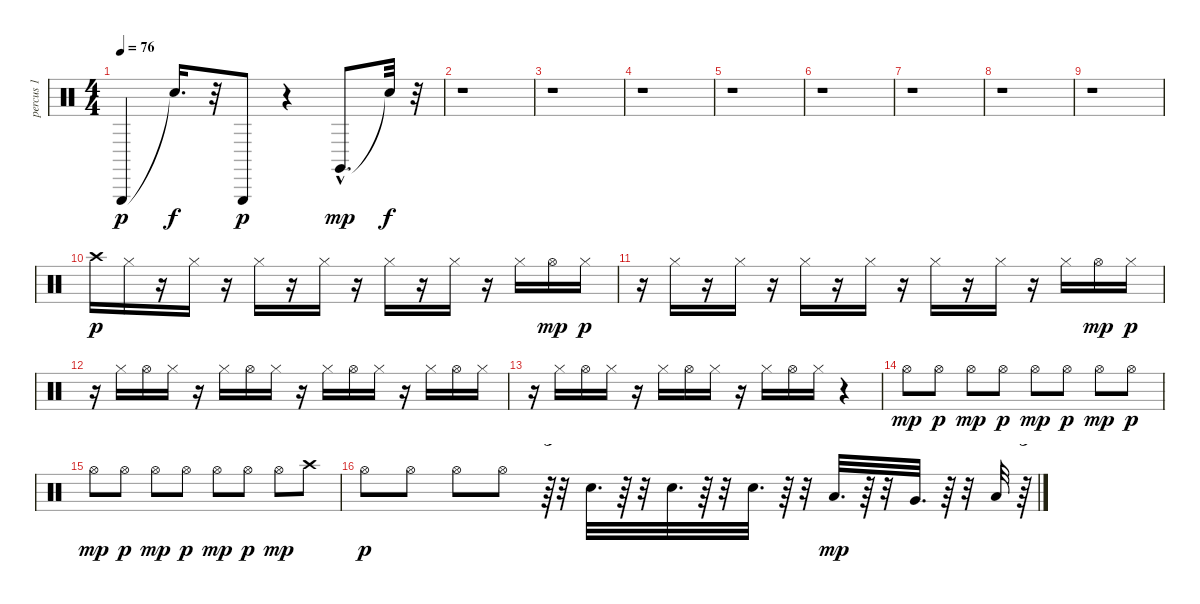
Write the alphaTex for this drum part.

\track ("percus 1" "percus 1") {instrument percussion}
\staff {score}
\articulation defaults
\ts (4 4)
\tempo 76
\clef neutral
\ks c "Triangle (hit)".4{dy p} "Snare (hit)"{t}.16{d dy f}
r.32 "Triangle (hit)".8{dy p} r.4 "Claves (hit)"{hac}.8{d dy mp} "Snare (hit)"{t}.32{dy f} r.32 |
r.1 |
r.1 |
r.1 |
r.1 |
r.1 |
r.1 |
r.1 |
r.1 |
"Crash high (hit)".16{dy p} "Hi-Hat (closed)".16 r.16 "Hi-Hat (closed)".16 r.16 "Hi-Hat (closed)".16 r.16 "Hi-Hat (closed)".16 r.16 "Hi-Hat (closed)".16 r.16 "Hi-Hat (closed)".16 r.16 "Hi-Hat (closed)".16 "Hi-Hat (open)".16{dy mp} "Hi-Hat (closed)".16{dy p} |
r.16 "Hi-Hat (closed)".16 r.16 "Hi-Hat (closed)".16 r.16 "Hi-Hat (closed)".16 r.16 "Hi-Hat (closed)".16 r.16 "Hi-Hat (closed)".16 r.16 "Hi-Hat (closed)".16 r.16 "Hi-Hat (closed)".16 "Hi-Hat (open)".16{dy mp} "Hi-Hat (closed)".16{dy p} |
r.16 "Hi-Hat (closed)".16 "Hi-Hat (open)".16 "Hi-Hat (closed)".16 r.16 "Hi-Hat (closed)".16 "Hi-Hat (open)".16 "Hi-Hat (closed)".16 r.16 "Hi-Hat (closed)".16 "Hi-Hat (open)".16 "Hi-Hat (closed)".16 r.16 "Hi-Hat (closed)".16 "Hi-Hat (open)".16 "Hi-Hat (closed)".16 |
r.16 "Hi-Hat (closed)".16 "Hi-Hat (open)".16 "Hi-Hat (closed)".16 r.16 "Hi-Hat (closed)".16 "Hi-Hat (open)".16 "Hi-Hat (closed)".16 r.16 "Hi-Hat (closed)".16 "Hi-Hat (open)".16 "Hi-Hat (closed)".16 r.4 |
"Hi-Hat (open)".8{dy mp} "Hi-Hat (open)".8{dy p} "Hi-Hat (open)".8{dy mp} "Hi-Hat (open)".8{dy p} "Hi-Hat (open)".8{dy mp} "Hi-Hat (open)".8{dy p} "Hi-Hat (open)".8{dy mp} "Hi-Hat (open)".8{dy p} |
"Hi-Hat (open)".8{dy mp} "Hi-Hat (open)".8{dy p} "Hi-Hat (open)".8{dy mp} "Hi-Hat (open)".8{dy p} "Hi-Hat (open)".8{dy mp} "Hi-Hat (open)".8{dy p} "Hi-Hat (open)".8{dy mp} "Crash high (hit)".8 |
"Hi-Hat (open)".8{dy p} "Hi-Hat (open)".8 "Hi-Hat (open)".8 "Hi-Hat (open)".8 r.64{tu (3 2)} r.32 "Electric Snare (hit)".32{d} r.64 r.32 "Electric Snare (hit)".32{d} r.64 r.32 "Electric Snare (hit)".32{d} r.64 r.32 "Low Tom (hit)".32{d dy mp} r.64 r.32 "Very Low Tom (hit)".32{d} r.64 r.32 "Low Floor Tom (hit)".32 r.64{tu (3 2)}
